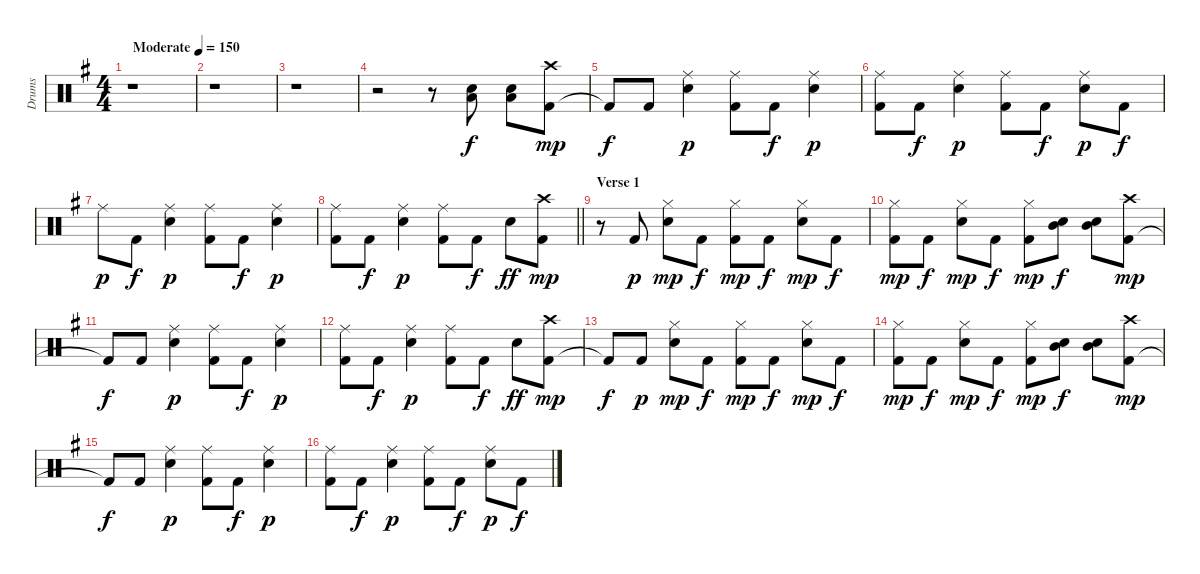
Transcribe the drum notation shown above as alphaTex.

\track ("Drums" "Drums") {instrument percussion}
\staff {score}
\articulation defaults
\ts (4 4)
\tempo (150 "Moderate")
\clef neutral
\ks g
r.1{dy f} |
r.1 |
r.1 |
r.2 r.8 ("Electric Snare (hit)" "Low Tom (hit)").8 ("Electric Snare (hit)" "Low Tom (hit)").8 ("Kick (hit) 2" "Crash high (hit)").8{dy mp} |
"Kick (hit) 2"{t}.8{dy f} "Kick (hit) 2".8 ("Electric Snare (hit)" "Ride (middle)").4{dy p} ("Kick (hit) 2" "Ride (middle)").8 "Kick (hit) 2".8{dy f} ("Electric Snare (hit)" "Ride (middle)").4{dy p} |
("Kick (hit) 2" "Ride (middle)").8 "Kick (hit) 2".8{dy f} ("Electric Snare (hit)" "Ride (middle)").4{dy p} ("Kick (hit) 2" "Ride (middle)").8 "Kick (hit) 2".8{dy f} ("Electric Snare (hit)" "Ride (middle)").8{dy p} "Kick (hit) 2".8{dy f} |
"Ride (middle)".8{dy p} "Kick (hit) 2".8{dy f} ("Electric Snare (hit)" "Ride (middle)").4{dy p} ("Kick (hit) 2" "Ride (middle)").8 "Kick (hit) 2".8{dy f} ("Electric Snare (hit)" "Ride (middle)").4{dy p} |
\barLineRight lightlight
("Kick (hit) 2" "Ride (middle)").8 "Kick (hit) 2".8{dy f} ("Electric Snare (hit)" "Ride (middle)").4{dy p} ("Kick (hit) 2" "Ride (middle)").8 "Kick (hit) 2".8{dy f} "Electric Snare (hit)".8{dy ff} ("Crash high (hit)" "Kick (hit) 2").8{dy mp} |
\section ("" "Verse 1")
r.8 "Kick (hit) 2".8{dy p} ("Electric Snare (hit)" "Hi-Hat (closed)").8{dy mp} "Kick (hit) 2".8{dy f} ("Kick (hit) 2" "Hi-Hat (closed)").8{dy mp} "Kick (hit) 2".8{dy f} ("Electric Snare (hit)" "Hi-Hat (closed)").8{dy mp} "Kick (hit) 2".8{dy f} |
("Kick (hit) 2" "Hi-Hat (closed)").8{dy mp} "Kick (hit) 2".8{dy f} ("Electric Snare (hit)" "Hi-Hat (closed)").8{dy mp} "Kick (hit) 2".8{dy f} ("Kick (hit) 2" "Hi-Hat (closed)").8{dy mp} ("Electric Snare (hit)" "Mid Tom (hit)").8{dy f} ("Electric Snare (hit)" "Mid Tom (hit)").8 ("Kick (hit) 2" "Crash high (hit)").8{dy mp} |
"Kick (hit) 2"{t}.8{dy f} "Kick (hit) 2".8 ("Electric Snare (hit)" "Ride (middle)").4{dy p} ("Kick (hit) 2" "Ride (middle)").8 "Kick (hit) 2".8{dy f} ("Electric Snare (hit)" "Ride (middle)").4{dy p} |
("Kick (hit) 2" "Ride (middle)").8 "Kick (hit) 2".8{dy f} ("Electric Snare (hit)" "Ride (middle)").4{dy p} ("Kick (hit) 2" "Ride (middle)").8 "Kick (hit) 2".8{dy f} "Electric Snare (hit)".8{dy ff} ("Kick (hit) 2" "Crash high (hit)").8{dy mp} |
"Kick (hit) 2"{t}.8{dy f} "Kick (hit) 2".8{dy p} ("Electric Snare (hit)" "Hi-Hat (closed)").8{dy mp} "Kick (hit) 2".8{dy f} ("Kick (hit) 2" "Hi-Hat (closed)").8{dy mp} "Kick (hit) 2".8{dy f} ("Electric Snare (hit)" "Hi-Hat (closed)").8{dy mp} "Kick (hit) 2".8{dy f} |
("Kick (hit) 2" "Hi-Hat (closed)").8{dy mp} "Kick (hit) 2".8{dy f} ("Electric Snare (hit)" "Hi-Hat (closed)").8{dy mp} "Kick (hit) 2".8{dy f} ("Kick (hit) 2" "Hi-Hat (closed)").8{dy mp} ("Electric Snare (hit)" "Mid Tom (hit)").8{dy f} ("Electric Snare (hit)" "Mid Tom (hit)").8 ("Kick (hit) 2" "Crash high (hit)").8{dy mp} |
"Kick (hit) 2"{t}.8{dy f} "Kick (hit) 2".8 ("Electric Snare (hit)" "Ride (middle)").4{dy p} ("Kick (hit) 2" "Ride (middle)").8 "Kick (hit) 2".8{dy f} ("Electric Snare (hit)" "Ride (middle)").4{dy p} |
("Kick (hit) 2" "Ride (middle)").8 "Kick (hit) 2".8{dy f} ("Electric Snare (hit)" "Ride (middle)").4{dy p} ("Kick (hit) 2" "Ride (middle)").8 "Kick (hit) 2".8{dy f} ("Electric Snare (hit)" "Ride (middle)").8{dy p} "Kick (hit) 2".8{dy f}
